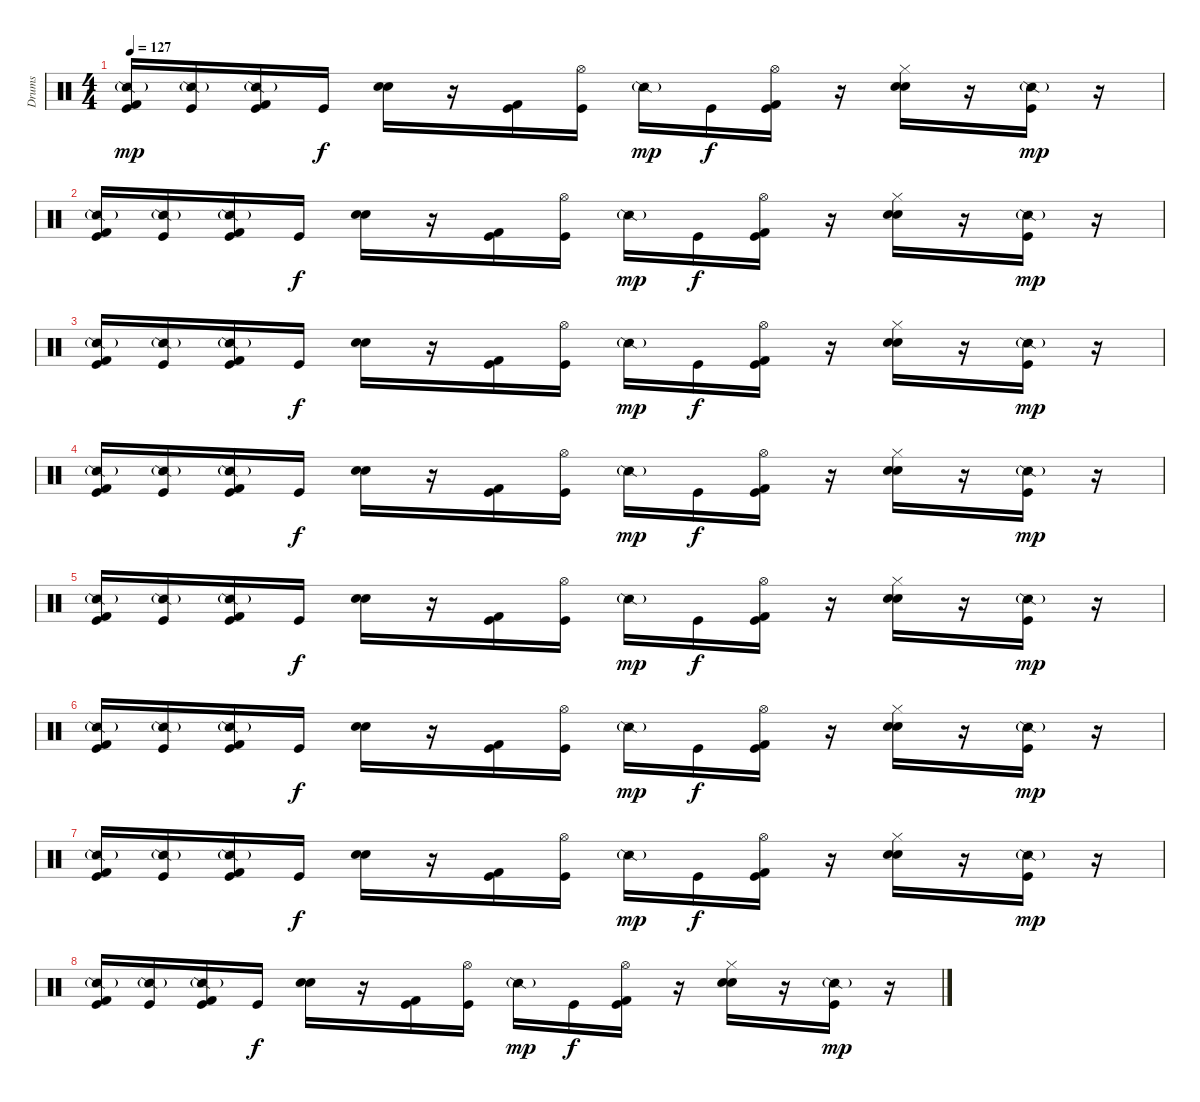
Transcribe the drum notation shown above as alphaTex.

\track ("Drums" "Drums") {instrument percussion}
\staff {score}
\articulation defaults
\ts (4 4)
\tempo 127
\clef neutral
\ks c
("Snare (side stick) 2"{g} "Kick (hit) 2" "Kick (hit)").16{dy mp} ("Snare (side stick) 2"{g} "Kick (hit)").16 ("Snare (side stick) 2"{g} "Kick (hit) 2" "Kick (hit)").16 "Kick (hit)".16{dy f} ("Snare (hit) 2" "Hand Clap (hit)").16 r.16 ("Kick (hit) 2" "Kick (hit)").16 ("Hi-Hat (open)" "Kick (hit)").16 "Snare (side stick) 2"{g}.16{dy mp} "Kick (hit)".16{dy f} ("Hi-Hat (open)" "Kick (hit) 2" "Kick (hit)").16 r.16 ("Hi-Hat (closed)" "Snare (hit) 2" "Hand Clap (hit)").16 r.16 ("Snare (side stick) 2"{g} "Kick (hit)").16{dy mp} r.16 |
("Snare (side stick) 2"{g} "Kick (hit) 2" "Kick (hit)").16 ("Snare (side stick) 2"{g} "Kick (hit)").16 ("Snare (side stick) 2"{g} "Kick (hit) 2" "Kick (hit)").16 "Kick (hit)".16{dy f} ("Snare (hit) 2" "Hand Clap (hit)").16 r.16 ("Kick (hit) 2" "Kick (hit)").16 ("Hi-Hat (open)" "Kick (hit)").16 "Snare (side stick) 2"{g}.16{dy mp} "Kick (hit)".16{dy f} ("Hi-Hat (open)" "Kick (hit) 2" "Kick (hit)").16 r.16 ("Hi-Hat (closed)" "Snare (hit) 2" "Hand Clap (hit)").16 r.16 ("Snare (side stick) 2"{g} "Kick (hit)").16{dy mp} r.16 |
("Snare (side stick) 2"{g} "Kick (hit) 2" "Kick (hit)").16 ("Snare (side stick) 2"{g} "Kick (hit)").16 ("Snare (side stick) 2"{g} "Kick (hit) 2" "Kick (hit)").16 "Kick (hit)".16{dy f} ("Snare (hit) 2" "Hand Clap (hit)").16 r.16 ("Kick (hit) 2" "Kick (hit)").16 ("Hi-Hat (open)" "Kick (hit)").16 "Snare (side stick) 2"{g}.16{dy mp} "Kick (hit)".16{dy f} ("Hi-Hat (open)" "Kick (hit) 2" "Kick (hit)").16 r.16 ("Hi-Hat (closed)" "Snare (hit) 2" "Hand Clap (hit)").16 r.16 ("Snare (side stick) 2"{g} "Kick (hit)").16{dy mp} r.16 |
("Snare (side stick) 2"{g} "Kick (hit) 2" "Kick (hit)").16 ("Snare (side stick) 2"{g} "Kick (hit)").16 ("Snare (side stick) 2"{g} "Kick (hit) 2" "Kick (hit)").16 "Kick (hit)".16{dy f} ("Snare (hit) 2" "Hand Clap (hit)").16 r.16 ("Kick (hit) 2" "Kick (hit)").16 ("Hi-Hat (open)" "Kick (hit)").16 "Snare (side stick) 2"{g}.16{dy mp} "Kick (hit)".16{dy f} ("Hi-Hat (open)" "Kick (hit) 2" "Kick (hit)").16 r.16 ("Hi-Hat (closed)" "Snare (hit) 2" "Hand Clap (hit)").16 r.16 ("Snare (side stick) 2"{g} "Kick (hit)").16{dy mp} r.16 |
("Snare (side stick) 2"{g} "Kick (hit) 2" "Kick (hit)").16 ("Snare (side stick) 2"{g} "Kick (hit)").16 ("Snare (side stick) 2"{g} "Kick (hit) 2" "Kick (hit)").16 "Kick (hit)".16{dy f} ("Snare (hit) 2" "Hand Clap (hit)").16 r.16 ("Kick (hit) 2" "Kick (hit)").16 ("Hi-Hat (open)" "Kick (hit)").16 "Snare (side stick) 2"{g}.16{dy mp} "Kick (hit)".16{dy f} ("Hi-Hat (open)" "Kick (hit) 2" "Kick (hit)").16 r.16 ("Hi-Hat (closed)" "Snare (hit) 2" "Hand Clap (hit)").16 r.16 ("Snare (side stick) 2"{g} "Kick (hit)").16{dy mp} r.16 |
("Snare (side stick) 2"{g} "Kick (hit) 2" "Kick (hit)").16 ("Snare (side stick) 2"{g} "Kick (hit)").16 ("Snare (side stick) 2"{g} "Kick (hit) 2" "Kick (hit)").16 "Kick (hit)".16{dy f} ("Snare (hit) 2" "Hand Clap (hit)").16 r.16 ("Kick (hit) 2" "Kick (hit)").16 ("Hi-Hat (open)" "Kick (hit)").16 "Snare (side stick) 2"{g}.16{dy mp} "Kick (hit)".16{dy f} ("Hi-Hat (open)" "Kick (hit) 2" "Kick (hit)").16 r.16 ("Hi-Hat (closed)" "Snare (hit) 2" "Hand Clap (hit)").16 r.16 ("Snare (side stick) 2"{g} "Kick (hit)").16{dy mp} r.16 |
("Snare (side stick) 2"{g} "Kick (hit) 2" "Kick (hit)").16 ("Snare (side stick) 2"{g} "Kick (hit)").16 ("Snare (side stick) 2"{g} "Kick (hit) 2" "Kick (hit)").16 "Kick (hit)".16{dy f} ("Snare (hit) 2" "Hand Clap (hit)").16 r.16 ("Kick (hit) 2" "Kick (hit)").16 ("Hi-Hat (open)" "Kick (hit)").16 "Snare (side stick) 2"{g}.16{dy mp} "Kick (hit)".16{dy f} ("Hi-Hat (open)" "Kick (hit) 2" "Kick (hit)").16 r.16 ("Hi-Hat (closed)" "Snare (hit) 2" "Hand Clap (hit)").16 r.16 ("Snare (side stick) 2"{g} "Kick (hit)").16{dy mp} r.16 |
("Snare (side stick) 2"{g} "Kick (hit) 2" "Kick (hit)").16 ("Snare (side stick) 2"{g} "Kick (hit)").16 ("Snare (side stick) 2"{g} "Kick (hit) 2" "Kick (hit)").16 "Kick (hit)".16{dy f} ("Snare (hit) 2" "Hand Clap (hit)").16 r.16 ("Kick (hit) 2" "Kick (hit)").16 ("Hi-Hat (open)" "Kick (hit)").16 "Snare (side stick) 2"{g}.16{dy mp} "Kick (hit)".16{dy f} ("Hi-Hat (open)" "Kick (hit) 2" "Kick (hit)").16 r.16 ("Hi-Hat (closed)" "Snare (hit) 2" "Hand Clap (hit)").16 r.16 ("Snare (side stick) 2"{g} "Kick (hit)").16{dy mp} r.16
